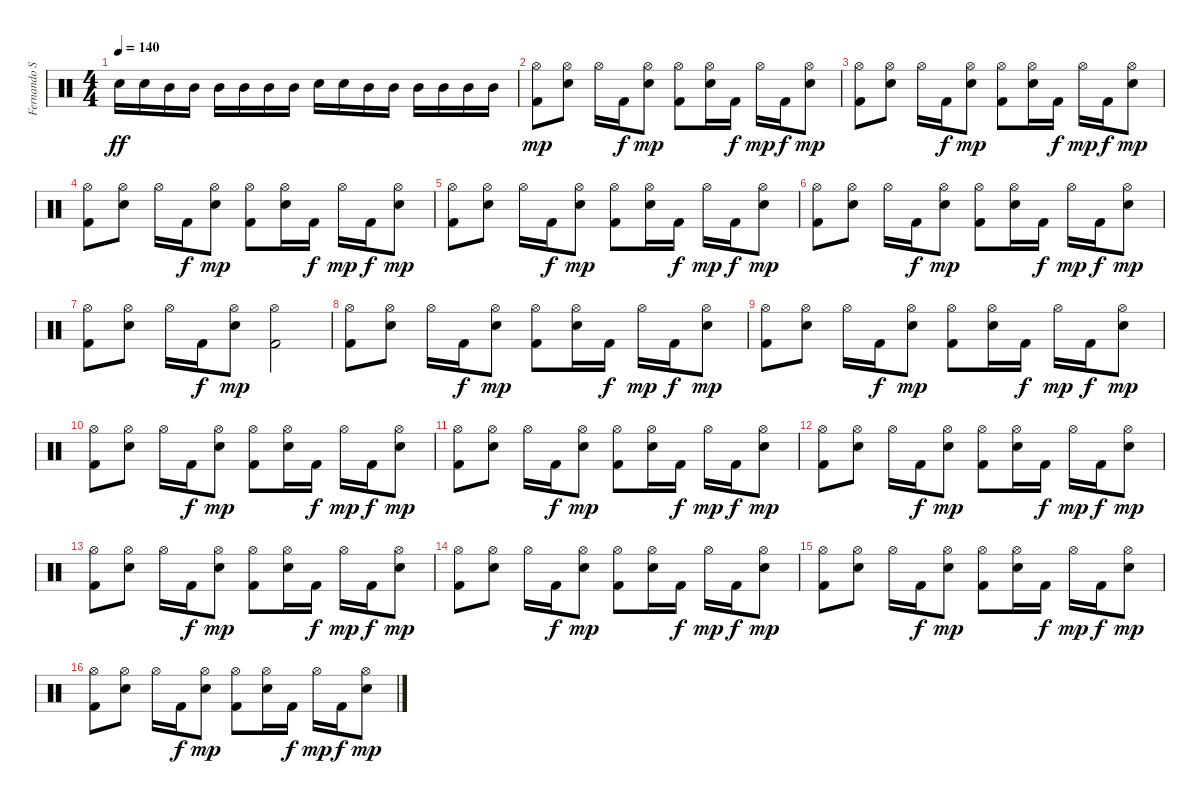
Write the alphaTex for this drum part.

\track ("Fernando Scarcella" "Fernando S") {instrument percussion}
\staff {score}
\articulation defaults
\ts (4 4)
\tempo 140
\clef neutral
\ks c "Snare (hit) 2".16{dy ff} "Snare (hit) 2".16 "Mid Tom (hit)".16 "Mid Tom (hit)".16 "Mid Tom (hit)".16 "Mid Tom (hit)".16 "Mid Tom (hit)".16 "Mid Tom (hit)".16 "Snare (hit) 2".16 "Snare (hit) 2".16 "Mid Tom (hit)".16 "Mid Tom (hit)".16 "Mid Tom (hit)".16 "Mid Tom (hit)".16 "Mid Tom (hit)".16 "Mid Tom (hit)".16
|
("Hi-Hat (open)" "Kick (hit) 2").8{dy mp} ("Hi-Hat (open)" "Snare (hit) 2").8 "Hi-Hat (open)".16 "Kick (hit) 2".16{dy f} ("Hi-Hat (open)" "Snare (hit) 2").8{dy mp} ("Hi-Hat (open)" "Kick (hit) 2").8 ("Hi-Hat (open)" "Snare (hit) 2").16 "Kick (hit) 2".16{dy f} "Hi-Hat (open)".16{dy mp} "Kick (hit) 2".16{dy f} ("Hi-Hat (open)" "Snare (hit) 2").8{dy mp} |
("Hi-Hat (open)" "Kick (hit) 2").8 ("Hi-Hat (open)" "Snare (hit) 2").8 "Hi-Hat (open)".16 "Kick (hit) 2".16{dy f} ("Hi-Hat (open)" "Snare (hit) 2").8{dy mp} ("Hi-Hat (open)" "Kick (hit) 2").8 ("Hi-Hat (open)" "Snare (hit) 2").16 "Kick (hit) 2".16{dy f} "Hi-Hat (open)".16{dy mp} "Kick (hit) 2".16{dy f} ("Hi-Hat (open)" "Snare (hit) 2").8{dy mp} |
("Hi-Hat (open)" "Kick (hit) 2").8 ("Hi-Hat (open)" "Snare (hit) 2").8 "Hi-Hat (open)".16 "Kick (hit) 2".16{dy f} ("Hi-Hat (open)" "Snare (hit) 2").8{dy mp} ("Hi-Hat (open)" "Kick (hit) 2").8 ("Hi-Hat (open)" "Snare (hit) 2").16 "Kick (hit) 2".16{dy f} "Hi-Hat (open)".16{dy mp} "Kick (hit) 2".16{dy f} ("Hi-Hat (open)" "Snare (hit) 2").8{dy mp} |
("Hi-Hat (open)" "Kick (hit) 2").8 ("Hi-Hat (open)" "Snare (hit) 2").8 "Hi-Hat (open)".16 "Kick (hit) 2".16{dy f} ("Hi-Hat (open)" "Snare (hit) 2").8{dy mp} ("Hi-Hat (open)" "Kick (hit) 2").8 ("Hi-Hat (open)" "Snare (hit) 2").16 "Kick (hit) 2".16{dy f} "Hi-Hat (open)".16{dy mp} "Kick (hit) 2".16{dy f} ("Hi-Hat (open)" "Snare (hit) 2").8{dy mp} |
("Hi-Hat (open)" "Kick (hit) 2").8 ("Hi-Hat (open)" "Snare (hit) 2").8 "Hi-Hat (open)".16 "Kick (hit) 2".16{dy f} ("Hi-Hat (open)" "Snare (hit) 2").8{dy mp} ("Hi-Hat (open)" "Kick (hit) 2").8 ("Hi-Hat (open)" "Snare (hit) 2").16 "Kick (hit) 2".16{dy f} "Hi-Hat (open)".16{dy mp} "Kick (hit) 2".16{dy f} ("Hi-Hat (open)" "Snare (hit) 2").8{dy mp} |
("Hi-Hat (open)" "Kick (hit) 2").8 ("Hi-Hat (open)" "Snare (hit) 2").8 "Hi-Hat (open)".16 "Kick (hit) 2".16{dy f} ("Hi-Hat (open)" "Snare (hit) 2").8{dy mp} ("Hi-Hat (open)" "Kick (hit) 2").2 |
("Hi-Hat (open)" "Kick (hit) 2").8 ("Hi-Hat (open)" "Snare (hit) 2").8 "Hi-Hat (open)".16 "Kick (hit) 2".16{dy f} ("Hi-Hat (open)" "Snare (hit) 2").8{dy mp} ("Hi-Hat (open)" "Kick (hit) 2").8 ("Hi-Hat (open)" "Snare (hit) 2").16 "Kick (hit) 2".16{dy f} "Hi-Hat (open)".16{dy mp} "Kick (hit) 2".16{dy f} ("Hi-Hat (open)" "Snare (hit) 2").8{dy mp} |
("Hi-Hat (open)" "Kick (hit) 2").8 ("Hi-Hat (open)" "Snare (hit) 2").8 "Hi-Hat (open)".16 "Kick (hit) 2".16{dy f} ("Hi-Hat (open)" "Snare (hit) 2").8{dy mp} ("Hi-Hat (open)" "Kick (hit) 2").8 ("Hi-Hat (open)" "Snare (hit) 2").16 "Kick (hit) 2".16{dy f} "Hi-Hat (open)".16{dy mp} "Kick (hit) 2".16{dy f} ("Hi-Hat (open)" "Snare (hit) 2").8{dy mp} |
("Hi-Hat (open)" "Kick (hit) 2").8 ("Hi-Hat (open)" "Snare (hit) 2").8 "Hi-Hat (open)".16 "Kick (hit) 2".16{dy f} ("Hi-Hat (open)" "Snare (hit) 2").8{dy mp} ("Hi-Hat (open)" "Kick (hit) 2").8 ("Hi-Hat (open)" "Snare (hit) 2").16 "Kick (hit) 2".16{dy f} "Hi-Hat (open)".16{dy mp} "Kick (hit) 2".16{dy f} ("Hi-Hat (open)" "Snare (hit) 2").8{dy mp} |
("Hi-Hat (open)" "Kick (hit) 2").8 ("Hi-Hat (open)" "Snare (hit) 2").8 "Hi-Hat (open)".16 "Kick (hit) 2".16{dy f} ("Hi-Hat (open)" "Snare (hit) 2").8{dy mp} ("Hi-Hat (open)" "Kick (hit) 2").8 ("Hi-Hat (open)" "Snare (hit) 2").16 "Kick (hit) 2".16{dy f} "Hi-Hat (open)".16{dy mp} "Kick (hit) 2".16{dy f} ("Hi-Hat (open)" "Snare (hit) 2").8{dy mp} |
("Hi-Hat (open)" "Kick (hit) 2").8 ("Hi-Hat (open)" "Snare (hit) 2").8 "Hi-Hat (open)".16 "Kick (hit) 2".16{dy f} ("Hi-Hat (open)" "Snare (hit) 2").8{dy mp} ("Hi-Hat (open)" "Kick (hit) 2").8 ("Hi-Hat (open)" "Snare (hit) 2").16 "Kick (hit) 2".16{dy f} "Hi-Hat (open)".16{dy mp} "Kick (hit) 2".16{dy f} ("Hi-Hat (open)" "Snare (hit) 2").8{dy mp} |
("Hi-Hat (open)" "Kick (hit) 2").8 ("Hi-Hat (open)" "Snare (hit) 2").8 "Hi-Hat (open)".16 "Kick (hit) 2".16{dy f} ("Hi-Hat (open)" "Snare (hit) 2").8{dy mp} ("Hi-Hat (open)" "Kick (hit) 2").8 ("Hi-Hat (open)" "Snare (hit) 2").16 "Kick (hit) 2".16{dy f} "Hi-Hat (open)".16{dy mp} "Kick (hit) 2".16{dy f} ("Hi-Hat (open)" "Snare (hit) 2").8{dy mp} |
("Hi-Hat (open)" "Kick (hit) 2").8 ("Hi-Hat (open)" "Snare (hit) 2").8 "Hi-Hat (open)".16 "Kick (hit) 2".16{dy f} ("Hi-Hat (open)" "Snare (hit) 2").8{dy mp} ("Hi-Hat (open)" "Kick (hit) 2").8 ("Hi-Hat (open)" "Snare (hit) 2").16 "Kick (hit) 2".16{dy f} "Hi-Hat (open)".16{dy mp} "Kick (hit) 2".16{dy f} ("Hi-Hat (open)" "Snare (hit) 2").8{dy mp} |
("Hi-Hat (open)" "Kick (hit) 2").8 ("Hi-Hat (open)" "Snare (hit) 2").8 "Hi-Hat (open)".16 "Kick (hit) 2".16{dy f} ("Hi-Hat (open)" "Snare (hit) 2").8{dy mp} ("Hi-Hat (open)" "Kick (hit) 2").8 ("Hi-Hat (open)" "Snare (hit) 2").16 "Kick (hit) 2".16{dy f} "Hi-Hat (open)".16{dy mp} "Kick (hit) 2".16{dy f} ("Hi-Hat (open)" "Snare (hit) 2").8{dy mp} |
("Hi-Hat (open)" "Kick (hit) 2").8 ("Hi-Hat (open)" "Snare (hit) 2").8 "Hi-Hat (open)".16 "Kick (hit) 2".16{dy f} ("Hi-Hat (open)" "Snare (hit) 2").8{dy mp} ("Hi-Hat (open)" "Kick (hit) 2").8 ("Hi-Hat (open)" "Snare (hit) 2").16 "Kick (hit) 2".16{dy f} "Hi-Hat (open)".16{dy mp} "Kick (hit) 2".16{dy f} ("Hi-Hat (open)" "Snare (hit) 2").8{dy mp}
